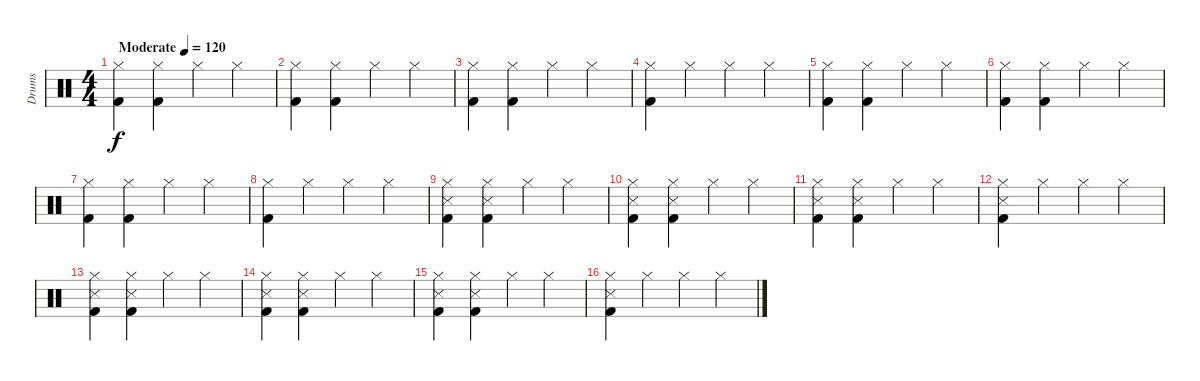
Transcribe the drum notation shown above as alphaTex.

\track ("Drums" "Drums") {instrument percussion}
\staff {score}
\articulation defaults
\ts (4 4)
\tempo (120 "Moderate")
\clef neutral
\ks c
("Hi-Hat (closed)" "Kick (hit) 2").4{dy f} ("Hi-Hat (closed)" "Kick (hit) 2").4 "Hi-Hat (closed)".4 "Hi-Hat (closed)".4 |
("Hi-Hat (closed)" "Kick (hit) 2").4 ("Hi-Hat (closed)" "Kick (hit) 2").4 "Hi-Hat (closed)".4 "Hi-Hat (closed)".4 |
("Hi-Hat (closed)" "Kick (hit) 2").4 ("Hi-Hat (closed)" "Kick (hit) 2").4 "Hi-Hat (closed)".4 "Hi-Hat (closed)".4 |
("Hi-Hat (closed)" "Kick (hit) 2").4 "Hi-Hat (closed)".4 "Hi-Hat (closed)".4 "Hi-Hat (closed)".4 |
("Hi-Hat (closed)" "Kick (hit) 2").4 ("Hi-Hat (closed)" "Kick (hit) 2").4 "Hi-Hat (closed)".4 "Hi-Hat (closed)".4 |
("Hi-Hat (closed)" "Kick (hit) 2").4 ("Hi-Hat (closed)" "Kick (hit) 2").4 "Hi-Hat (closed)".4 "Hi-Hat (closed)".4 |
("Hi-Hat (closed)" "Kick (hit) 2").4 ("Hi-Hat (closed)" "Kick (hit) 2").4 "Hi-Hat (closed)".4 "Hi-Hat (closed)".4 |
("Hi-Hat (closed)" "Kick (hit) 2").4 "Hi-Hat (closed)".4 "Hi-Hat (closed)".4 "Hi-Hat (closed)".4 |
("Hi-Hat (closed)" "Snare (side stick) 3" "Kick (hit) 2").4 ("Hi-Hat (closed)" "Snare (side stick) 3" "Kick (hit) 2").4 "Hi-Hat (closed)".4 "Hi-Hat (closed)".4 |
("Hi-Hat (closed)" "Snare (side stick) 3" "Kick (hit) 2").4 ("Hi-Hat (closed)" "Snare (side stick) 3" "Kick (hit) 2").4 "Hi-Hat (closed)".4 "Hi-Hat (closed)".4 |
("Hi-Hat (closed)" "Snare (side stick) 3" "Kick (hit) 2").4 ("Hi-Hat (closed)" "Snare (side stick) 3" "Kick (hit) 2").4 "Hi-Hat (closed)".4 "Hi-Hat (closed)".4 |
("Hi-Hat (closed)" "Snare (side stick) 3" "Kick (hit) 2").4 "Hi-Hat (closed)".4 "Hi-Hat (closed)".4 "Hi-Hat (closed)".4 |
("Hi-Hat (closed)" "Snare (side stick) 3" "Kick (hit) 2").4 ("Hi-Hat (closed)" "Snare (side stick) 3" "Kick (hit) 2").4 "Hi-Hat (closed)".4 "Hi-Hat (closed)".4 |
("Hi-Hat (closed)" "Snare (side stick) 3" "Kick (hit) 2").4 ("Hi-Hat (closed)" "Snare (side stick) 3" "Kick (hit) 2").4 "Hi-Hat (closed)".4 "Hi-Hat (closed)".4 |
("Hi-Hat (closed)" "Snare (side stick) 3" "Kick (hit) 2").4 ("Hi-Hat (closed)" "Snare (side stick) 3" "Kick (hit) 2").4 "Hi-Hat (closed)".4 "Hi-Hat (closed)".4 |
("Hi-Hat (closed)" "Snare (side stick) 3" "Kick (hit) 2").4 "Hi-Hat (closed)".4 "Hi-Hat (closed)".4 "Hi-Hat (closed)".4
